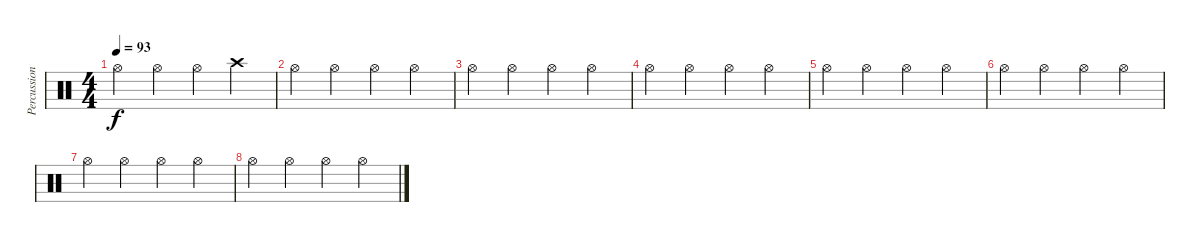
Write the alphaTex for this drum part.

\track ("Percussion" "Percussion") {instrument percussion}
\staff {score}
\articulation defaults
\ts (4 4)
\tempo 93
\clef neutral
\ks c "Hi-Hat (open)".4{dy f} "Hi-Hat (open)".4 "Hi-Hat (open)".4 "Crash high (hit)".4
|
"Hi-Hat (open)".4 "Hi-Hat (open)".4 "Hi-Hat (open)".4 "Hi-Hat (open)".4 |
"Hi-Hat (open)".4 "Hi-Hat (open)".4 "Hi-Hat (open)".4 "Hi-Hat (open)".4 |
"Hi-Hat (open)".4 "Hi-Hat (open)".4 "Hi-Hat (open)".4 "Hi-Hat (open)".4 |
"Hi-Hat (open)".4 "Hi-Hat (open)".4 "Hi-Hat (open)".4 "Hi-Hat (open)".4 |
"Hi-Hat (open)".4 "Hi-Hat (open)".4 "Hi-Hat (open)".4 "Hi-Hat (open)".4 |
"Hi-Hat (open)".4 "Hi-Hat (open)".4 "Hi-Hat (open)".4 "Hi-Hat (open)".4 |
"Hi-Hat (open)".4 "Hi-Hat (open)".4 "Hi-Hat (open)".4 "Hi-Hat (open)".4
